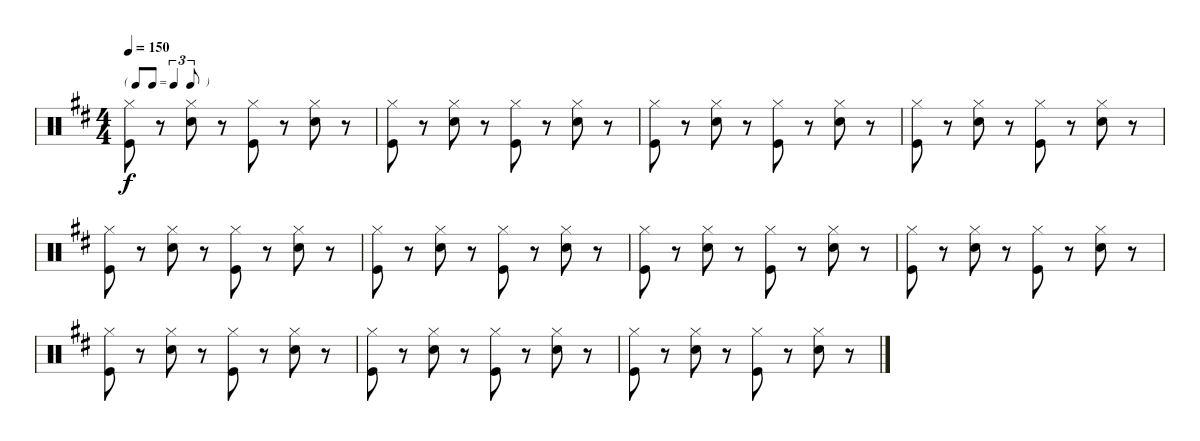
\bracketExtendMode nobrackets
\singleTrackTrackNamePolicy hidden
\multiTrackTrackNamePolicy hidden
\firstSystemTrackNameMode fullname
\firstSystemTrackNameOrientation horizontal
\otherSystemsTrackNameOrientation horizontal
\defaultBarNumberDisplay Hide
\track ("Drumkit" "Drums") {instrument percussion}
\staff {score}
\articulation defaults
\ts (4 4)
\tf triplet8th
\tempo 150
\clef neutral
\ks d
("Kick (hit)" "Hi-Hat (closed)").8{dy f} r.8 ("Snare (hit) 2" "Hi-Hat (closed)").8 r.8 ("Kick (hit)" "Hi-Hat (closed)").8 r.8 ("Snare (hit) 2" "Hi-Hat (closed)").8 r.8 |
("Kick (hit)" "Hi-Hat (closed)").8 r.8 ("Snare (hit) 2" "Hi-Hat (closed)").8 r.8 ("Kick (hit)" "Hi-Hat (closed)").8 r.8 ("Snare (hit) 2" "Hi-Hat (closed)").8 r.8 |
("Kick (hit)" "Hi-Hat (closed)").8 r.8 ("Snare (hit) 2" "Hi-Hat (closed)").8 r.8 ("Kick (hit)" "Hi-Hat (closed)").8 r.8 ("Snare (hit) 2" "Hi-Hat (closed)").8 r.8 |
("Kick (hit)" "Hi-Hat (closed)").8 r.8 ("Snare (hit) 2" "Hi-Hat (closed)").8 r.8 ("Kick (hit)" "Hi-Hat (closed)").8 r.8 ("Snare (hit) 2" "Hi-Hat (closed)").8 r.8 |
("Kick (hit)" "Hi-Hat (closed)").8 r.8 ("Snare (hit) 2" "Hi-Hat (closed)").8 r.8 ("Kick (hit)" "Hi-Hat (closed)").8 r.8 ("Snare (hit) 2" "Hi-Hat (closed)").8 r.8 |
("Kick (hit)" "Hi-Hat (closed)").8 r.8 ("Snare (hit) 2" "Hi-Hat (closed)").8 r.8 ("Kick (hit)" "Hi-Hat (closed)").8 r.8 ("Snare (hit) 2" "Hi-Hat (closed)").8 r.8 |
("Kick (hit)" "Hi-Hat (closed)").8 r.8 ("Snare (hit) 2" "Hi-Hat (closed)").8 r.8 ("Kick (hit)" "Hi-Hat (closed)").8 r.8 ("Snare (hit) 2" "Hi-Hat (closed)").8 r.8 |
("Kick (hit)" "Hi-Hat (closed)").8 r.8 ("Snare (hit) 2" "Hi-Hat (closed)").8 r.8 ("Kick (hit)" "Hi-Hat (closed)").8 r.8 ("Snare (hit) 2" "Hi-Hat (closed)").8 r.8 |
("Kick (hit)" "Hi-Hat (closed)").8 r.8 ("Snare (hit) 2" "Hi-Hat (closed)").8 r.8 ("Kick (hit)" "Hi-Hat (closed)").8 r.8 ("Snare (hit) 2" "Hi-Hat (closed)").8 r.8 |
("Kick (hit)" "Hi-Hat (closed)").8 r.8 ("Snare (hit) 2" "Hi-Hat (closed)").8 r.8 ("Kick (hit)" "Hi-Hat (closed)").8 r.8 ("Snare (hit) 2" "Hi-Hat (closed)").8 r.8 |
("Kick (hit)" "Hi-Hat (closed)").8 r.8 ("Snare (hit) 2" "Hi-Hat (closed)").8 r.8 ("Kick (hit)" "Hi-Hat (closed)").8 r.8 ("Snare (hit) 2" "Hi-Hat (closed)").8 r.8
